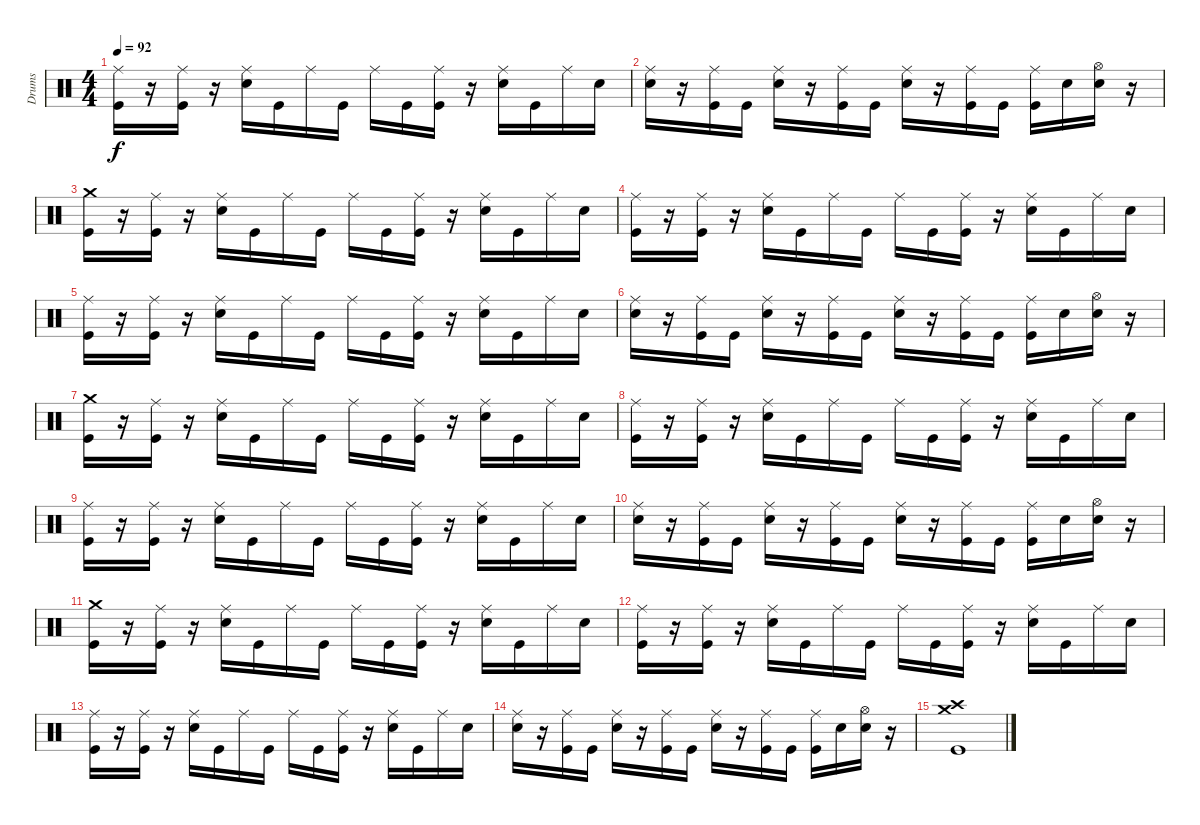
\track ("Drums" "Drums") {instrument percussion}
\staff {score}
\articulation defaults
\ts (4 4)
\tempo 92
\clef neutral
\ks c
("Ride (middle)" "Kick (hit)").16{dy f} r.16 ("Ride (middle)" "Kick (hit)").16 r.16 ("Ride (middle)" "Snare (hit) 2").16 "Kick (hit)".16 "Ride (middle)".16 "Kick (hit)".16 "Ride (middle)".16 "Kick (hit)".16 ("Ride (middle)" "Kick (hit)").16 r.16 ("Ride (middle)" "Snare (hit) 2").16 "Kick (hit)".16 "Ride (middle)".16 "Snare (hit) 2".16 |
("Ride (middle)" "Snare (hit) 2").16 r.16 ("Ride (middle)" "Kick (hit)").16 "Kick (hit)".16 ("Ride (middle)" "Snare (hit) 2").16 r.16 ("Ride (middle)" "Kick (hit)").16 "Kick (hit)".16 ("Ride (middle)" "Snare (hit) 2").16 r.16 ("Ride (middle)" "Kick (hit)").16 "Kick (hit)".16 ("Ride (middle)" "Kick (hit)").16 "Snare (hit) 2".16 ("Hi-Hat (open)" "Snare (hit) 2").16 r.16 |
("Crash medium (hit)" "Kick (hit)").16 r.16 ("Ride (middle)" "Kick (hit)").16 r.16 ("Ride (middle)" "Snare (hit) 2").16 "Kick (hit)".16 "Ride (middle)".16 "Kick (hit)".16 "Ride (middle)".16 "Kick (hit)".16 ("Ride (middle)" "Kick (hit)").16 r.16 ("Ride (middle)" "Snare (hit) 2").16 "Kick (hit)".16 "Ride (middle)".16 "Snare (hit) 2".16 |
("Ride (middle)" "Kick (hit)").16 r.16 ("Ride (middle)" "Kick (hit)").16 r.16 ("Ride (middle)" "Snare (hit) 2").16 "Kick (hit)".16 "Ride (middle)".16 "Kick (hit)".16 "Ride (middle)".16 "Kick (hit)".16 ("Ride (middle)" "Kick (hit)").16 r.16 ("Ride (middle)" "Snare (hit) 2").16 "Kick (hit)".16 "Ride (middle)".16 "Snare (hit) 2".16 |
("Ride (middle)" "Kick (hit)").16 r.16 ("Ride (middle)" "Kick (hit)").16 r.16 ("Ride (middle)" "Snare (hit) 2").16 "Kick (hit)".16 "Ride (middle)".16 "Kick (hit)".16 "Ride (middle)".16 "Kick (hit)".16 ("Ride (middle)" "Kick (hit)").16 r.16 ("Ride (middle)" "Snare (hit) 2").16 "Kick (hit)".16 "Ride (middle)".16 "Snare (hit) 2".16 |
("Ride (middle)" "Snare (hit) 2").16 r.16 ("Ride (middle)" "Kick (hit)").16 "Kick (hit)".16 ("Ride (middle)" "Snare (hit) 2").16 r.16 ("Ride (middle)" "Kick (hit)").16 "Kick (hit)".16 ("Ride (middle)" "Snare (hit) 2").16 r.16 ("Ride (middle)" "Kick (hit)").16 "Kick (hit)".16 ("Ride (middle)" "Kick (hit)").16 "Snare (hit) 2".16 ("Hi-Hat (open)" "Snare (hit) 2").16 r.16 |
("Crash medium (hit)" "Kick (hit)").16 r.16 ("Ride (middle)" "Kick (hit)").16 r.16 ("Ride (middle)" "Snare (hit) 2").16 "Kick (hit)".16 "Ride (middle)".16 "Kick (hit)".16 "Ride (middle)".16 "Kick (hit)".16 ("Ride (middle)" "Kick (hit)").16 r.16 ("Ride (middle)" "Snare (hit) 2").16 "Kick (hit)".16 "Ride (middle)".16 "Snare (hit) 2".16 |
("Ride (middle)" "Kick (hit)").16 r.16 ("Ride (middle)" "Kick (hit)").16 r.16 ("Ride (middle)" "Snare (hit) 2").16 "Kick (hit)".16 "Ride (middle)".16 "Kick (hit)".16 "Ride (middle)".16 "Kick (hit)".16 ("Ride (middle)" "Kick (hit)").16 r.16 ("Ride (middle)" "Snare (hit) 2").16 "Kick (hit)".16 "Ride (middle)".16 "Snare (hit) 2".16 |
("Ride (middle)" "Kick (hit)").16 r.16 ("Ride (middle)" "Kick (hit)").16 r.16 ("Ride (middle)" "Snare (hit) 2").16 "Kick (hit)".16 "Ride (middle)".16 "Kick (hit)".16 "Ride (middle)".16 "Kick (hit)".16 ("Ride (middle)" "Kick (hit)").16 r.16 ("Ride (middle)" "Snare (hit) 2").16 "Kick (hit)".16 "Ride (middle)".16 "Snare (hit) 2".16 |
("Ride (middle)" "Snare (hit) 2").16 r.16 ("Ride (middle)" "Kick (hit)").16 "Kick (hit)".16 ("Ride (middle)" "Snare (hit) 2").16 r.16 ("Ride (middle)" "Kick (hit)").16 "Kick (hit)".16 ("Ride (middle)" "Snare (hit) 2").16 r.16 ("Ride (middle)" "Kick (hit)").16 "Kick (hit)".16 ("Ride (middle)" "Kick (hit)").16 "Snare (hit) 2".16 ("Hi-Hat (open)" "Snare (hit) 2").16 r.16 |
("Crash medium (hit)" "Kick (hit)").16 r.16 ("Ride (middle)" "Kick (hit)").16 r.16 ("Ride (middle)" "Snare (hit) 2").16 "Kick (hit)".16 "Ride (middle)".16 "Kick (hit)".16 "Ride (middle)".16 "Kick (hit)".16 ("Ride (middle)" "Kick (hit)").16 r.16 ("Ride (middle)" "Snare (hit) 2").16 "Kick (hit)".16 "Ride (middle)".16 "Snare (hit) 2".16 |
("Ride (middle)" "Kick (hit)").16 r.16 ("Ride (middle)" "Kick (hit)").16 r.16 ("Ride (middle)" "Snare (hit) 2").16 "Kick (hit)".16 "Ride (middle)".16 "Kick (hit)".16 "Ride (middle)".16 "Kick (hit)".16 ("Ride (middle)" "Kick (hit)").16 r.16 ("Ride (middle)" "Snare (hit) 2").16 "Kick (hit)".16 "Ride (middle)".16 "Snare (hit) 2".16 |
("Ride (middle)" "Kick (hit)").16 r.16 ("Ride (middle)" "Kick (hit)").16 r.16 ("Ride (middle)" "Snare (hit) 2").16 "Kick (hit)".16 "Ride (middle)".16 "Kick (hit)".16 "Ride (middle)".16 "Kick (hit)".16 ("Ride (middle)" "Kick (hit)").16 r.16 ("Ride (middle)" "Snare (hit) 2").16 "Kick (hit)".16 "Ride (middle)".16 "Snare (hit) 2".16 |
("Ride (middle)" "Snare (hit) 2").16 r.16 ("Ride (middle)" "Kick (hit)").16 "Kick (hit)".16 ("Ride (middle)" "Snare (hit) 2").16 r.16 ("Ride (middle)" "Kick (hit)").16 "Kick (hit)".16 ("Ride (middle)" "Snare (hit) 2").16 r.16 ("Ride (middle)" "Kick (hit)").16 "Kick (hit)".16 ("Ride (middle)" "Kick (hit)").16 "Snare (hit) 2".16 ("Hi-Hat (open)" "Snare (hit) 2").16 r.16 |
("Crash medium (hit)" "Crash high (hit)" "Kick (hit)").1
